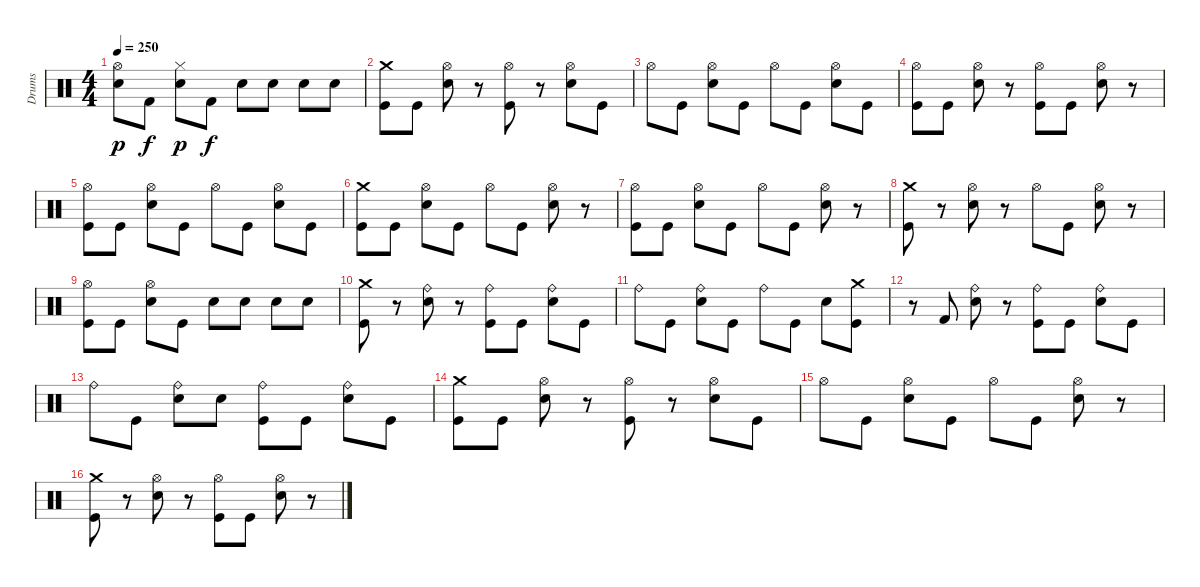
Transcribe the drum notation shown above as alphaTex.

\track ("Drums" "Drums") {instrument percussion}
\staff {score}
\articulation defaults
\ts (4 4)
\tempo 250
\clef neutral
\ks c
("Hi-Hat (open)" "Electric Snare (hit)").8{dy p} "Kick (hit) 2".8{dy f} ("Hi-Hat (closed)" "Electric Snare (hit)").8{dy p} "Kick (hit) 2".8{dy f} "Electric Snare (hit)".8 "Electric Snare (hit)".8 "Electric Snare (hit)".8 "Electric Snare (hit)".8 |
("Crash medium (hit)" "Kick (hit)").8 "Kick (hit)".8 ("Hi-Hat (open)" "Electric Snare (hit)").8 r.8 ("Hi-Hat (open)" "Kick (hit)").8 r.8 ("Hi-Hat (open)" "Electric Snare (hit)").8 "Kick (hit)".8 |
"Hi-Hat (open)".8 "Kick (hit)".8 ("Hi-Hat (open)" "Electric Snare (hit)").8 "Kick (hit)".8 "Hi-Hat (open)".8 "Kick (hit)".8 ("Hi-Hat (open)" "Electric Snare (hit)").8 "Kick (hit)".8 |
("Hi-Hat (open)" "Kick (hit)").8 "Kick (hit)".8 ("Hi-Hat (open)" "Electric Snare (hit)").8 r.8 ("Hi-Hat (open)" "Kick (hit)").8 "Kick (hit)".8 ("Hi-Hat (open)" "Electric Snare (hit)").8 r.8 |
("Hi-Hat (open)" "Kick (hit)").8 "Kick (hit)".8 ("Hi-Hat (open)" "Electric Snare (hit)").8 "Kick (hit)".8 "Hi-Hat (open)".8 "Kick (hit)".8 ("Hi-Hat (open)" "Electric Snare (hit)").8 "Kick (hit)".8 |
("Crash medium (hit)" "Kick (hit)").8 "Kick (hit)".8 ("Hi-Hat (open)" "Electric Snare (hit)").8 "Kick (hit)".8 "Hi-Hat (open)".8 "Kick (hit)".8 ("Hi-Hat (open)" "Electric Snare (hit)").8 r.8 |
("Hi-Hat (open)" "Kick (hit)").8 "Kick (hit)".8 ("Hi-Hat (open)" "Electric Snare (hit)").8 "Kick (hit)".8 "Hi-Hat (open)".8 "Kick (hit)".8 ("Hi-Hat (open)" "Electric Snare (hit)").8 r.8 |
("Crash medium (hit)" "Kick (hit)").8 r.8 ("Hi-Hat (open)" "Electric Snare (hit)").8 r.8 "Hi-Hat (open)".8 "Kick (hit)".8 ("Hi-Hat (open)" "Electric Snare (hit)").8 r.8 |
("Hi-Hat (open)" "Kick (hit)").8 "Kick (hit)".8 ("Hi-Hat (open)" "Electric Snare (hit)").8 "Kick (hit)".8 "Electric Snare (hit)".8 "Electric Snare (hit)".8 "Electric Snare (hit)".8 "Electric Snare (hit)".8 |
("Crash medium (hit)" "Kick (hit)").8 r.8 ("Ride (bell)" "Electric Snare (hit)").8 r.8 ("Ride (bell)" "Kick (hit)").8 "Kick (hit)".8 ("Ride (bell)" "Electric Snare (hit)").8 "Kick (hit)".8 |
"Ride (bell)".8 "Kick (hit)".8 ("Ride (bell)" "Electric Snare (hit)").8 "Kick (hit)".8 "Ride (bell)".8 "Kick (hit)".8 "Electric Snare (hit)".8 ("Crash medium (hit)" "Kick (hit)").8 |
r.8 "Kick (hit) 2".8 ("Ride (bell)" "Electric Snare (hit)").8 r.8 ("Ride (bell)" "Kick (hit)").8 "Kick (hit)".8 ("Ride (bell)" "Electric Snare (hit)").8 "Kick (hit)".8 |
"Ride (bell)".8 "Kick (hit)".8 ("Ride (bell)" "Electric Snare (hit)").8 "Electric Snare (hit)".8 ("Ride (bell)" "Kick (hit)").8 "Kick (hit)".8 ("Ride (bell)" "Electric Snare (hit)").8 "Kick (hit)".8 |
("Crash medium (hit)" "Kick (hit)").8 "Kick (hit)".8 ("Hi-Hat (open)" "Electric Snare (hit)").8 r.8 ("Hi-Hat (open)" "Kick (hit)").8 r.8 ("Hi-Hat (open)" "Electric Snare (hit)").8 "Kick (hit)".8 |
"Hi-Hat (open)".8 "Kick (hit)".8 ("Hi-Hat (open)" "Electric Snare (hit)").8 "Kick (hit)".8 "Hi-Hat (open)".8 "Kick (hit)".8 ("Hi-Hat (open)" "Electric Snare (hit)").8 r.8 |
("Crash medium (hit)" "Kick (hit)").8 r.8 ("Hi-Hat (open)" "Electric Snare (hit)").8 r.8 ("Hi-Hat (open)" "Kick (hit)").8 "Kick (hit)".8 ("Hi-Hat (open)" "Electric Snare (hit)").8 r.8
